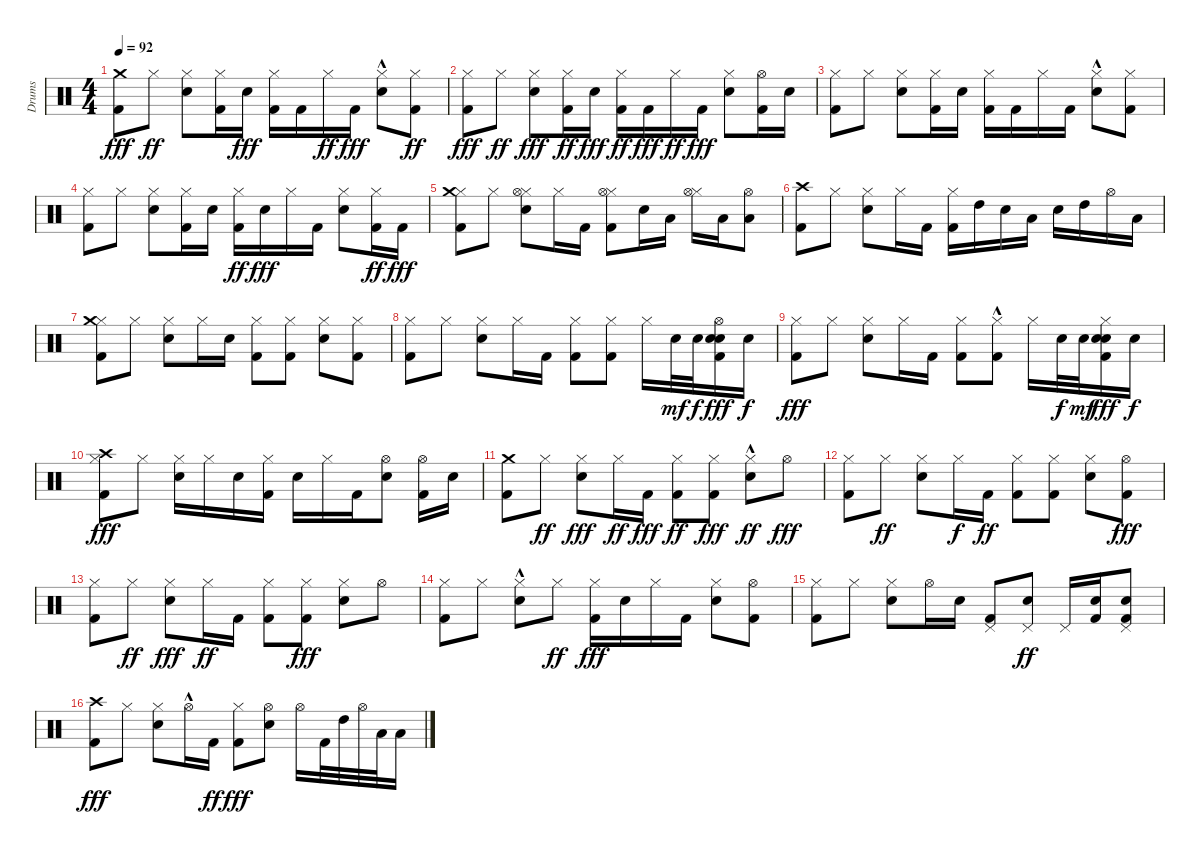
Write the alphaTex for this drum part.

\track ("Drums" "Drums") {instrument percussion}
\staff {score}
\articulation defaults
\ts (4 4)
\tempo 92
\clef neutral
\ks c
("Kick (hit) 2" "Crash medium (hit)").8{dy fff} "Hi-Hat (closed)".8{dy ff} ("Snare (hit) 2" "Hi-Hat (closed)").8 ("Kick (hit) 2" "Hi-Hat (closed)").16 "Snare (hit) 2".16{dy fff} ("Kick (hit) 2" "Hi-Hat (closed)").16 "Kick (hit) 2".16 "Hi-Hat (closed)".16{dy ff} "Kick (hit) 2".16{dy fff} ("Snare (hit) 2"{hac} "Hi-Hat (closed)").8 ("Kick (hit) 2" "Hi-Hat (closed)").8{dy ff} |
("Kick (hit) 2" "Hi-Hat (closed)").8{dy fff} "Hi-Hat (closed)".8{dy ff} ("Snare (hit) 2" "Hi-Hat (closed)").8{dy fff} ("Kick (hit) 2" "Hi-Hat (closed)").16{dy ff} "Snare (hit) 2".16{dy fff} ("Kick (hit) 2" "Hi-Hat (closed)").16{dy ff} "Kick (hit) 2".16{dy fff} "Hi-Hat (closed)".16{dy ff} "Kick (hit) 2".16{dy fff} ("Snare (hit) 2" "Hi-Hat (closed)").8 ("Kick (hit) 2" "Hi-Hat (open)").16 "Snare (hit) 2".16 |
("Kick (hit) 2" "Hi-Hat (closed)").8 "Hi-Hat (closed)".8 ("Snare (hit) 2" "Hi-Hat (closed)").8 ("Kick (hit) 2" "Hi-Hat (closed)").16 "Snare (hit) 2".16 ("Kick (hit) 2" "Hi-Hat (closed)").16 "Kick (hit) 2".16 "Hi-Hat (closed)".16 "Kick (hit) 2".16 ("Snare (hit) 2"{hac} "Hi-Hat (closed)").8 ("Kick (hit) 2" "Hi-Hat (closed)").8 |
("Kick (hit) 2" "Hi-Hat (closed)").8 "Hi-Hat (closed)".8 ("Snare (hit) 2" "Hi-Hat (closed)").8 ("Kick (hit) 2" "Hi-Hat (closed)").16 "Snare (hit) 2".16 ("Kick (hit) 2" "Hi-Hat (closed)").16{dy ff} "Snare (hit) 2".16{dy fff} "Hi-Hat (closed)".16 "Kick (hit) 2".16 ("Snare (hit) 2" "Hi-Hat (closed)").8 ("Kick (hit) 2" "Hi-Hat (closed)").16{dy ff} "Kick (hit) 2".16{dy fff} |
("Kick (hit) 2" "Hi-Hat (closed)" "Crash medium (hit)").8 "Hi-Hat (closed)".8 ("Snare (hit) 2" "Hi-Hat (closed)" "Hi-Hat (open)").8 "Hi-Hat (closed)".16 "Kick (hit) 2".16 ("Kick (hit) 2" "Hi-Hat (closed)" "Hi-Hat (open)").8 "Snare (hit) 2".16 "Low Floor Tom (hit)".16 ("Hi-Hat (closed)" "Hi-Hat (open)").16 "Low Tom (hit)".16 ("Low Floor Tom (hit)" "Hi-Hat (open)").8 |
("Kick (hit) 2" "Crash high (hit)").8 "Hi-Hat (closed)".8 ("Snare (hit) 2" "Hi-Hat (closed)").8 "Hi-Hat (closed)".16 "Kick (hit) 2".16 ("Kick (hit) 2" "Hi-Hat (closed)").16 "High Tom (hit)".16 "Snare (hit) 2".16 "Low Floor Tom (hit)".16 "Snare (hit) 2".16 "High Tom (hit)".16 "Hi-Hat (open)".16 "Low Floor Tom (hit)".16 |
("Kick (hit) 2" "Hi-Hat (closed)" "Crash medium (hit)").8 "Hi-Hat (closed)".8 ("Snare (hit) 2" "Hi-Hat (closed)").8 "Hi-Hat (closed)".16 "Snare (hit) 2".16 ("Kick (hit) 2" "Hi-Hat (closed)").8 ("Kick (hit) 2" "Hi-Hat (closed)").8 ("Snare (hit) 2" "Hi-Hat (closed)").8 ("Kick (hit) 2" "Hi-Hat (closed)").8 |
("Kick (hit) 2" "Hi-Hat (closed)").8 "Hi-Hat (closed)".8 ("Snare (hit) 2" "Hi-Hat (closed)").8 "Hi-Hat (closed)".16 "Kick (hit) 2".16 ("Kick (hit) 2" "Hi-Hat (closed)").8 ("Kick (hit) 2" "Hi-Hat (closed)").8 "Hi-Hat (closed)".16 "Snare (hit) 2".32{dy mf} "Snare (hit) 2".32{dy f} ("Snare (hit) 2" "Kick (hit) 2" "Snare (hit) 2" "Hi-Hat (open)").16{dy fff} "Snare (hit) 2".16{dy f} |
("Kick (hit) 2" "Hi-Hat (closed)").8{dy fff} "Hi-Hat (closed)".8 ("Snare (hit) 2" "Hi-Hat (closed)").8 "Hi-Hat (closed)".16 "Kick (hit) 2".16 ("Kick (hit) 2" "Hi-Hat (closed)").8 ("Kick (hit) 2"{hac} "Hi-Hat (closed)").8 "Hi-Hat (closed)".16 "Snare (hit) 2".32{dy f} "Snare (hit) 2".32{dy mf} ("Snare (hit) 2" "Kick (hit) 2" "Snare (hit) 2" "Hi-Hat (closed)").16{dy fff} "Snare (hit) 2".16{dy f} |
("Kick (hit) 2" "Hi-Hat (closed)" "Crash high (hit)").8{dy fff} "Hi-Hat (closed)".8 ("Snare (hit) 2" "Hi-Hat (closed)").16 "Hi-Hat (closed)".16 "Snare (hit) 2".16 ("Kick (hit) 2" "Hi-Hat (closed)").16 "Snare (hit) 2".16 "Hi-Hat (closed)".16 "Kick (hit) 2".16 ("Snare (hit) 2" "Hi-Hat (open)").8 ("Kick (hit) 2" "Hi-Hat (open)").16 "Snare (hit) 2".16 |
("Kick (hit) 2" "Crash medium (hit)").8 "Hi-Hat (closed)".8{dy ff} ("Snare (hit) 2" "Hi-Hat (closed)").8{dy fff} "Hi-Hat (closed)".16{dy ff} "Kick (hit) 2".16{dy fff} ("Kick (hit) 2" "Hi-Hat (closed)").8{dy ff} ("Kick (hit) 2" "Hi-Hat (closed)").8{dy fff} ("Snare (hit) 2"{hac} "Hi-Hat (closed)").8{dy ff} "Hi-Hat (open)".8{dy fff} |
("Kick (hit) 2" "Hi-Hat (closed)").8 "Hi-Hat (closed)".8{dy ff} ("Snare (hit) 2" "Hi-Hat (closed)").8 "Hi-Hat (closed)".16{dy f} "Kick (hit) 2".16{dy ff} ("Kick (hit) 2" "Hi-Hat (closed)").8 ("Kick (hit) 2" "Hi-Hat (closed)").8 ("Snare (hit) 2" "Hi-Hat (closed)").8 ("Kick (hit) 2" "Hi-Hat (open)").8{dy fff} |
("Kick (hit) 2" "Hi-Hat (closed)").8 "Hi-Hat (closed)".8{dy ff} ("Snare (hit) 2" "Hi-Hat (closed)").8{dy fff} "Hi-Hat (closed)".16{dy ff} "Kick (hit) 2".16 ("Kick (hit) 2" "Hi-Hat (closed)").8 ("Kick (hit) 2" "Hi-Hat (closed)").8{dy fff} ("Snare (hit) 2" "Hi-Hat (closed)").8 "Hi-Hat (open)".8 |
("Kick (hit) 2" "Hi-Hat (closed)").8 "Hi-Hat (closed)".8 ("Snare (hit) 2"{hac} "Hi-Hat (closed)").8 "Hi-Hat (closed)".8{dy ff} ("Kick (hit) 2" "Hi-Hat (closed)").16{dy fff} "Snare (hit) 2".16 "Hi-Hat (closed)".16 "Kick (hit) 2".16 ("Snare (hit) 2" "Hi-Hat (closed)").8 ("Kick (hit) 2" "Hi-Hat (open)").8 |
("Kick (hit) 2" "Hi-Hat (closed)").8 "Hi-Hat (closed)".8 ("Snare (hit) 2" "Hi-Hat (closed)").8 "Hi-Hat (open)".16 "Snare (hit) 2".16 ("Kick (hit) 2" "Pedal Hi-Hat (hit)").8 ("Snare (hit) 2" "Pedal Hi-Hat (hit)").8{dy ff} "Pedal Hi-Hat (hit)".16 ("Kick (hit) 2" "Snare (hit) 2").16 ("Kick (hit) 2" "Snare (hit) 2" "Pedal Hi-Hat (hit)").8 |
("Kick (hit) 2" "Crash high (hit)").8{dy fff} "Hi-Hat (closed)".8 ("Snare (hit) 2" "Hi-Hat (closed)").8 "Hi-Hat (open)"{hac}.16 "Kick (hit) 2".16{dy ff} ("Kick (hit) 2" "Hi-Hat (closed)").8{dy fff} ("Snare (hit) 2" "Hi-Hat (open)").8 "Hi-Hat (open)".16 "Kick (hit) 2".32 "High Tom (hit)".32 "Hi-Hat (open)".32 "Low Tom (hit)".32 "Low Floor Tom (hit)".16
